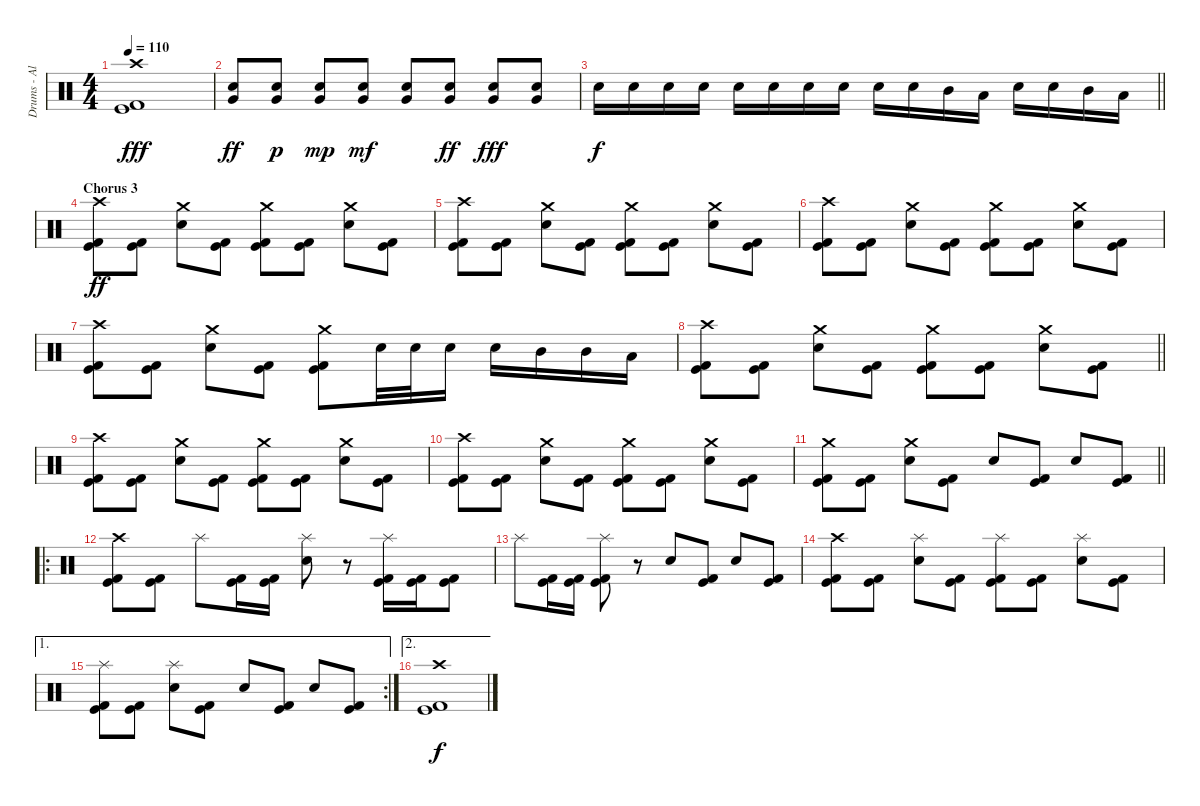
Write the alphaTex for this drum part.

\track ("Drums - Alex Shellnut" "Drums - Al") {instrument percussion}
\staff {score}
\articulation defaults
\ts (4 4)
\tempo 110
\clef neutral
\ks c
("Crash high (hit)" "Kick (hit)" "Kick (hit) 2").1{dy fff} |
("Electric Snare (hit)" "Very Low Tom (hit)").8{dy ff} ("Electric Snare (hit)" "Very Low Tom (hit)").8{dy p} ("Electric Snare (hit)" "Very Low Tom (hit)").8{dy mp} ("Electric Snare (hit)" "Very Low Tom (hit)").8{dy mf} ("Electric Snare (hit)" "Very Low Tom (hit)").8 ("Electric Snare (hit)" "Very Low Tom (hit)").8{dy ff} ("Electric Snare (hit)" "Very Low Tom (hit)").8{dy fff} ("Electric Snare (hit)" "Very Low Tom (hit)").8 |
\barLineRight lightlight "Electric Snare (hit)".16{dy f} "Electric Snare (hit)".16 "Electric Snare (hit)".16 "Electric Snare (hit)".16 "Electric Snare (hit)".16 "Electric Snare (hit)".16 "Electric Snare (hit)".16 "Electric Snare (hit)".16 "Electric Snare (hit)".16 "Electric Snare (hit)".16 "Mid Tom (hit)".16 "Low Tom (hit)".16 "Electric Snare (hit)".16 "Electric Snare (hit)".16 "Mid Tom (hit)".16 "Low Tom (hit)".16
|
\section ("" "Chorus 3")
("Crash high (hit)" "Kick (hit)" "Kick (hit) 2").8{dy ff} ("Kick (hit)" "Kick (hit) 2").8 ("Crash medium (hit)" "Electric Snare (hit)").8 ("Kick (hit)" "Kick (hit) 2").8 ("Crash medium (hit)" "Kick (hit)" "Kick (hit) 2").8 ("Kick (hit)" "Kick (hit) 2").8 ("Crash medium (hit)" "Electric Snare (hit)").8 ("Kick (hit)" "Kick (hit) 2").8 |
("Crash high (hit)" "Kick (hit)" "Kick (hit) 2").8 ("Kick (hit)" "Kick (hit) 2").8 ("Crash medium (hit)" "Electric Snare (hit)").8 ("Kick (hit)" "Kick (hit) 2").8 ("Crash medium (hit)" "Kick (hit)" "Kick (hit) 2").8 ("Kick (hit)" "Kick (hit) 2").8 ("Crash medium (hit)" "Electric Snare (hit)").8 ("Kick (hit)" "Kick (hit) 2").8 |
("Crash high (hit)" "Kick (hit)" "Kick (hit) 2").8 ("Kick (hit)" "Kick (hit) 2").8 ("Crash medium (hit)" "Electric Snare (hit)").8 ("Kick (hit)" "Kick (hit) 2").8 ("Crash medium (hit)" "Kick (hit)" "Kick (hit) 2").8 ("Kick (hit)" "Kick (hit) 2").8 ("Crash medium (hit)" "Electric Snare (hit)").8 ("Kick (hit)" "Kick (hit) 2").8 |
("Crash high (hit)" "Kick (hit)" "Kick (hit) 2").8 ("Kick (hit)" "Kick (hit) 2").8 ("Crash medium (hit)" "Electric Snare (hit)").8 ("Kick (hit)" "Kick (hit) 2").8 ("Crash medium (hit)" "Kick (hit)" "Kick (hit) 2").8 "Electric Snare (hit)".32 "Electric Snare (hit)".32 "Electric Snare (hit)".16 "Electric Snare (hit)".16 "Mid Tom (hit)".16 "Mid Tom (hit)".16 "Low Tom (hit)".16 |
\barLineRight lightlight
("Crash high (hit)" "Kick (hit)" "Kick (hit) 2").8 ("Kick (hit)" "Kick (hit) 2").8 ("Crash medium (hit)" "Electric Snare (hit)").8 ("Kick (hit)" "Kick (hit) 2").8 ("Crash medium (hit)" "Kick (hit)" "Kick (hit) 2").8 ("Kick (hit)" "Kick (hit) 2").8 ("Crash medium (hit)" "Electric Snare (hit)").8 ("Kick (hit)" "Kick (hit) 2").8 |
\section ("" "")
("Crash high (hit)" "Kick (hit)" "Kick (hit) 2").8 ("Kick (hit)" "Kick (hit) 2").8 ("Crash medium (hit)" "Electric Snare (hit)").8 ("Kick (hit)" "Kick (hit) 2").8 ("Crash medium (hit)" "Kick (hit)" "Kick (hit) 2").8 ("Kick (hit)" "Kick (hit) 2").8 ("Crash medium (hit)" "Electric Snare (hit)").8 ("Kick (hit)" "Kick (hit) 2").8 |
("Crash high (hit)" "Kick (hit)" "Kick (hit) 2").8 ("Kick (hit)" "Kick (hit) 2").8 ("Crash medium (hit)" "Electric Snare (hit)").8 ("Kick (hit)" "Kick (hit) 2").8 ("Crash medium (hit)" "Kick (hit)" "Kick (hit) 2").8 ("Kick (hit)" "Kick (hit) 2").8 ("Crash medium (hit)" "Electric Snare (hit)").8 ("Kick (hit)" "Kick (hit) 2").8 |
\barLineRight lightlight
("Crash medium (hit)" "Kick (hit)" "Kick (hit) 2").8 ("Kick (hit)" "Kick (hit) 2").8 ("Crash medium (hit)" "Electric Snare (hit)").8 ("Kick (hit)" "Kick (hit) 2").8 "Electric Snare (hit)".8 ("Kick (hit)" "Kick (hit) 2").8 "Electric Snare (hit)".8 ("Kick (hit)" "Kick (hit) 2").8 |
\ro
("Crash high (hit)" "Kick (hit)" "Kick (hit) 2").8 ("Kick (hit)" "Kick (hit) 2").8 "Splash (hit)".8 ("Kick (hit)" "Kick (hit) 2").16 ("Kick (hit)" "Kick (hit) 2").16 ("Splash (hit)" "Electric Snare (hit)").8 r.8 ("Splash (hit)" "Kick (hit)" "Kick (hit) 2").16 ("Kick (hit)" "Kick (hit) 2").16 ("Kick (hit)" "Kick (hit) 2").8 |
"Splash (hit)".8 ("Kick (hit)" "Kick (hit) 2").16 ("Kick (hit)" "Kick (hit) 2").16 ("Splash (hit)" "Kick (hit)" "Kick (hit) 2").8 r.8 "Electric Snare (hit)".8 ("Kick (hit)" "Kick (hit) 2").8 "Electric Snare (hit)".8 ("Kick (hit)" "Kick (hit) 2").8 |
("Crash high (hit)" "Kick (hit)" "Kick (hit) 2").8 ("Kick (hit)" "Kick (hit) 2").8 ("Splash (hit)" "Electric Snare (hit)").8 ("Kick (hit)" "Kick (hit) 2").8 ("Splash (hit)" "Kick (hit)" "Kick (hit) 2").8 ("Kick (hit)" "Kick (hit) 2").8 ("Splash (hit)" "Electric Snare (hit)").8 ("Kick (hit)" "Kick (hit) 2").8 |
\ae 1
\rc 2
("Splash (hit)" "Kick (hit)" "Kick (hit) 2").8 ("Kick (hit)" "Kick (hit) 2").8 ("Splash (hit)" "Electric Snare (hit)").8 ("Kick (hit)" "Kick (hit) 2").8 "Electric Snare (hit)".8 ("Kick (hit)" "Kick (hit) 2").8 "Electric Snare (hit)".8 ("Kick (hit)" "Kick (hit) 2").8 |
\ae 2
("Crash high (hit)" "Kick (hit)" "Kick (hit) 2").1{dy f}
